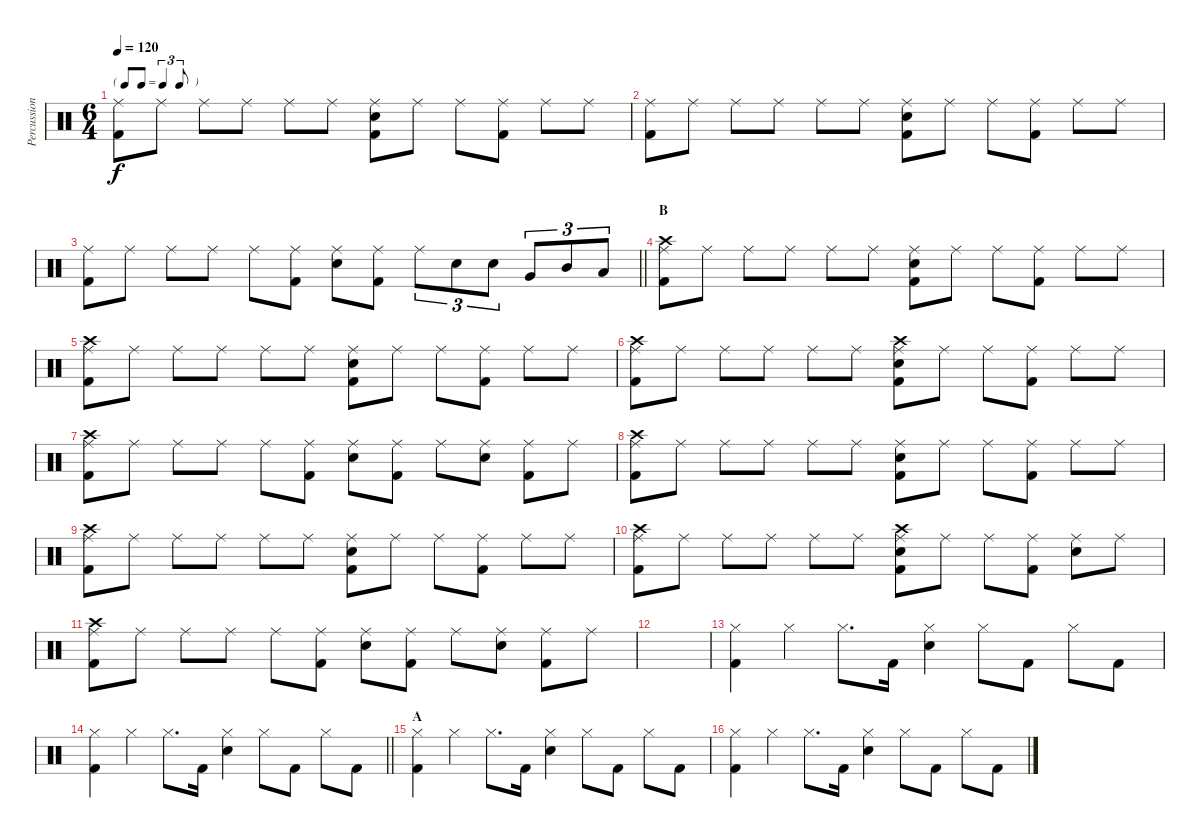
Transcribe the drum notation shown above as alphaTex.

\track ("Percussion" "Percussion") {instrument percussion}
\staff {score}
\articulation defaults
\ts (6 4)
\tf triplet8th
\tempo 120
\clef neutral
\ks c
("Ride (middle)" "Kick (hit) 2").8{dy f} "Ride (middle)".8 "Ride (middle)".8 "Ride (middle)".8 "Ride (middle)".8 "Ride (middle)".8 ("Ride (middle)" "Snare (hit) 2" "Kick (hit) 2").8 "Ride (middle)".8 "Ride (middle)".8 ("Ride (middle)" "Kick (hit) 2").8 "Ride (middle)".8 "Ride (middle)".8 |
("Ride (middle)" "Kick (hit) 2").8 "Ride (middle)".8 "Ride (middle)".8 "Ride (middle)".8 "Ride (middle)".8 "Ride (middle)".8 ("Ride (middle)" "Snare (hit) 2" "Kick (hit) 2").8 "Ride (middle)".8 "Ride (middle)".8 ("Ride (middle)" "Kick (hit) 2").8 "Ride (middle)".8 "Ride (middle)".8 |
\barLineRight lightlight
("Ride (middle)" "Kick (hit) 2").8 "Ride (middle)".8 "Ride (middle)".8 "Ride (middle)".8 "Ride (middle)".8 ("Ride (middle)" "Kick (hit) 2").8 ("Ride (middle)" "Snare (hit) 2").8 ("Ride (middle)" "Kick (hit) 2").8 "Ride (middle)".8{tu (3 2)} "Snare (hit) 2".8{tu (3 2)} "Snare (hit) 2".8{tu (3 2)} "Very Low Tom (hit)".8{tu (3 2)} "Mid Tom (hit)".8{tu (3 2)} "Low Tom (hit)".8{tu (3 2)} |
\section ("" "B")
("Ride (middle)" "Crash high (hit)" "Kick (hit) 2").8 "Ride (middle)".8 "Ride (middle)".8 "Ride (middle)".8 "Ride (middle)".8 "Ride (middle)".8 ("Ride (middle)" "Snare (hit) 2" "Kick (hit) 2").8 "Ride (middle)".8 "Ride (middle)".8 ("Ride (middle)" "Kick (hit) 2").8 "Ride (middle)".8 "Ride (middle)".8 |
("Ride (middle)" "Crash high (hit)" "Kick (hit) 2").8 "Ride (middle)".8 "Ride (middle)".8 "Ride (middle)".8 "Ride (middle)".8 "Ride (middle)".8 ("Ride (middle)" "Snare (hit) 2" "Kick (hit) 2").8 "Ride (middle)".8 "Ride (middle)".8 ("Ride (middle)" "Kick (hit) 2").8 "Ride (middle)".8 "Ride (middle)".8 |
("Ride (middle)" "Crash high (hit)" "Kick (hit) 2").8 "Ride (middle)".8 "Ride (middle)".8 "Ride (middle)".8 "Ride (middle)".8 "Ride (middle)".8 ("Ride (middle)" "Crash high (hit)" "Snare (hit) 2" "Kick (hit) 2").8 "Ride (middle)".8 "Ride (middle)".8 ("Ride (middle)" "Kick (hit) 2").8 "Ride (middle)".8 "Ride (middle)".8 |
("Ride (middle)" "Crash high (hit)" "Kick (hit) 2").8 "Ride (middle)".8 "Ride (middle)".8 "Ride (middle)".8 "Ride (middle)".8 ("Ride (middle)" "Kick (hit) 2").8 ("Ride (middle)" "Snare (hit) 2").8 ("Ride (middle)" "Kick (hit) 2").8 "Ride (middle)".8 ("Ride (middle)" "Snare (hit) 2").8 ("Ride (middle)" "Kick (hit) 2").8 "Ride (middle)".8 |
("Ride (middle)" "Crash high (hit)" "Kick (hit) 2").8 "Ride (middle)".8 "Ride (middle)".8 "Ride (middle)".8 "Ride (middle)".8 "Ride (middle)".8 ("Ride (middle)" "Snare (hit) 2" "Kick (hit) 2").8 "Ride (middle)".8 "Ride (middle)".8 ("Ride (middle)" "Kick (hit) 2").8 "Ride (middle)".8 "Ride (middle)".8 |
("Ride (middle)" "Crash high (hit)" "Kick (hit) 2").8 "Ride (middle)".8 "Ride (middle)".8 "Ride (middle)".8 "Ride (middle)".8 "Ride (middle)".8 ("Ride (middle)" "Snare (hit) 2" "Kick (hit) 2").8 "Ride (middle)".8 "Ride (middle)".8 ("Ride (middle)" "Kick (hit) 2").8 "Ride (middle)".8 "Ride (middle)".8 |
("Ride (middle)" "Crash high (hit)" "Kick (hit) 2").8 "Ride (middle)".8 "Ride (middle)".8 "Ride (middle)".8 "Ride (middle)".8 "Ride (middle)".8 ("Ride (middle)" "Crash high (hit)" "Snare (hit) 2" "Kick (hit) 2").8 "Ride (middle)".8 "Ride (middle)".8 ("Ride (middle)" "Kick (hit) 2").8 ("Ride (middle)" "Snare (hit) 2").8 "Ride (middle)".8 |
("Ride (middle)" "Crash high (hit)" "Kick (hit) 2").8 "Ride (middle)".8 "Ride (middle)".8 "Ride (middle)".8 "Ride (middle)".8 ("Ride (middle)" "Kick (hit) 2").8 ("Ride (middle)" "Snare (hit) 2").8 ("Ride (middle)" "Kick (hit) 2").8 "Ride (middle)".8 ("Ride (middle)" "Snare (hit) 2").8 ("Ride (middle)" "Kick (hit) 2").8 "Ride (middle)".8 |
|
("Hi-Hat (closed)" "Kick (hit) 2").4 "Hi-Hat (closed)".4 "Hi-Hat (closed)".8{d} "Kick (hit) 2".16 ("Hi-Hat (closed)" "Snare (hit) 2").4 "Hi-Hat (closed)".8 "Kick (hit) 2".8 "Hi-Hat (closed)".8 "Kick (hit) 2".8 |
\barLineRight lightlight
("Hi-Hat (closed)" "Kick (hit) 2").4 "Hi-Hat (closed)".4 "Hi-Hat (closed)".8{d} "Kick (hit) 2".16 ("Hi-Hat (closed)" "Snare (hit) 2").4 "Hi-Hat (closed)".8 "Kick (hit) 2".8 "Hi-Hat (closed)".8 "Kick (hit) 2".8 |
\section ("" "A")
("Hi-Hat (closed)" "Kick (hit) 2").4 "Hi-Hat (closed)".4 "Hi-Hat (closed)".8{d} "Kick (hit) 2".16 ("Hi-Hat (closed)" "Snare (hit) 2").4 "Hi-Hat (closed)".8 "Kick (hit) 2".8 "Hi-Hat (closed)".8 "Kick (hit) 2".8 |
("Hi-Hat (closed)" "Kick (hit) 2").4 "Hi-Hat (closed)".4 "Hi-Hat (closed)".8{d} "Kick (hit) 2".16 ("Hi-Hat (closed)" "Snare (hit) 2").4 "Hi-Hat (closed)".8 "Kick (hit) 2".8 "Hi-Hat (closed)".8 "Kick (hit) 2".8
